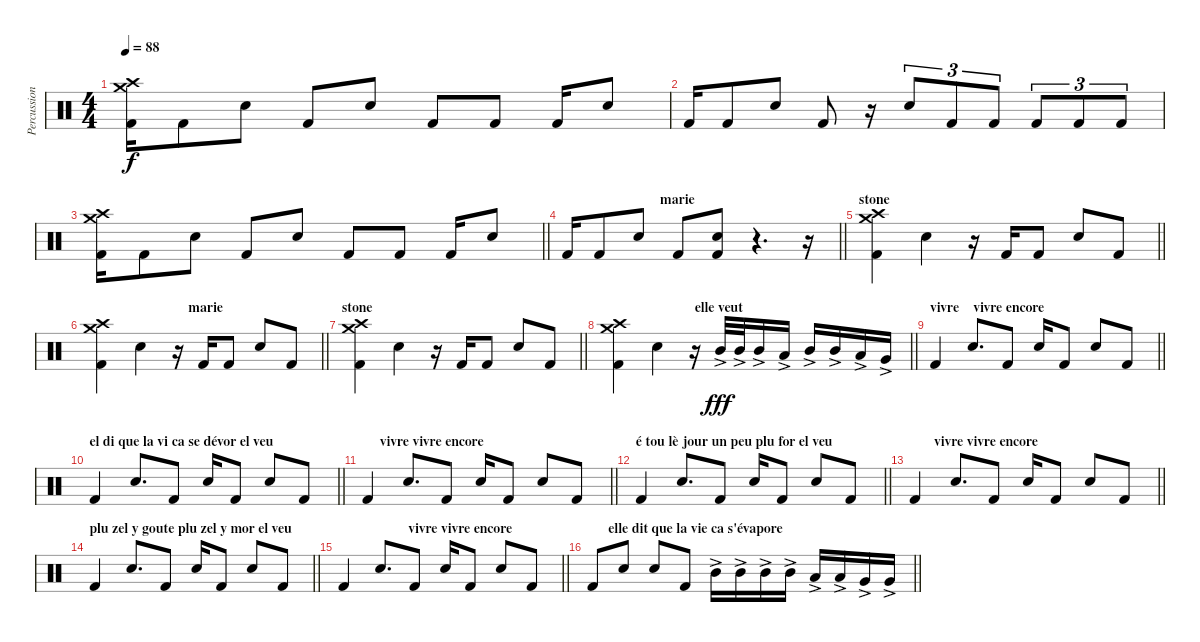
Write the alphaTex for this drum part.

\track ("Percussions" "Percussion") {instrument percussion}
\staff {score}
\articulation defaults
\ts (4 4)
\tempo 88
\clef neutral
\ks c
("Crash medium (hit)" "Crash high (hit)" "Kick (hit) 2").16{dy f} "Kick (hit) 2".8 "Snare (hit) 2".8 "Kick (hit) 2".8 "Snare (hit) 2".8 "Kick (hit) 2".8 "Kick (hit) 2".8 "Kick (hit) 2".16 "Snare (hit) 2".8 |
"Kick (hit) 2".16 "Kick (hit) 2".8 "Snare (hit) 2".8 "Kick (hit) 2".8 r.16 "Snare (hit) 2".8{tu (3 2)} "Kick (hit) 2".8{tu (3 2)} "Kick (hit) 2".8{tu (3 2)} "Kick (hit) 2".8{tu (3 2)} "Kick (hit) 2".8{tu (3 2)} "Kick (hit) 2".8{tu (3 2)} |
\barLineRight lightlight
("Crash medium (hit)" "Crash high (hit)" "Kick (hit) 2").16 "Kick (hit) 2".8 "Snare (hit) 2".8 "Kick (hit) 2".8 "Snare (hit) 2".8 "Kick (hit) 2".8 "Kick (hit) 2".8 "Kick (hit) 2".16 "Snare (hit) 2".8 |
\section ("" "                            marie ")
\barLineRight lightlight "Kick (hit) 2".16 "Kick (hit) 2".8 "Snare (hit) 2".8 "Kick (hit) 2".8
("Snare (hit) 2" "Kick (hit) 2").8 r.4{d} r.16 |
\section ("" "stone")
\barLineRight lightlight
("Crash medium (hit)" "Crash high (hit)" "Kick (hit) 2").4 "Snare (hit) 2".4 r.16 "Kick (hit) 2".16 "Kick (hit) 2".8 "Snare (hit) 2".8 "Kick (hit) 2".8 |
\section ("" "                              marie")
\barLineRight lightlight
("Crash medium (hit)" "Crash high (hit)" "Kick (hit) 2").4 "Snare (hit) 2".4 r.16 "Kick (hit) 2".16 "Kick (hit) 2".8 "Snare (hit) 2".8 "Kick (hit) 2".8 |
\section ("" "stone")
\barLineRight lightlight
("Crash medium (hit)" "Crash high (hit)" "Kick (hit) 2").4 "Snare (hit) 2".4 r.16 "Kick (hit) 2".16 "Kick (hit) 2".8 "Snare (hit) 2".8 "Kick (hit) 2".8 |
\section ("" "                           elle veut")
\barLineRight lightlight
("Crash medium (hit)" "Crash high (hit)" "Kick (hit) 2").4 "Snare (hit) 2".4 r.16 "Mid Tom (hit)"{ac}.32{dy fff} "Mid Tom (hit)"{ac}.32 "Mid Tom (hit)"{ac}.16 "Low Tom (hit)"{ac}.16 "Mid Tom (hit)"{ac}.16 "Mid Tom (hit)"{ac}.16 "Low Tom (hit)"{ac}.16 "Very Low Tom (hit)"{ac}.16 |
\section ("" "vivre    vivre encore")
\barLineRight lightlight "Kick (hit) 2".4 "Snare (hit) 2".8{d} "Kick (hit) 2".8 "Snare (hit) 2".16 "Kick (hit) 2".8 "Snare (hit) 2".8 "Kick (hit) 2".8
|
\section ("" "el di que la vi ca se dévor el veu")
\barLineRight lightlight "Kick (hit) 2".4 "Snare (hit) 2".8{d} "Kick (hit) 2".8 "Snare (hit) 2".16 "Kick (hit) 2".8 "Snare (hit) 2".8 "Kick (hit) 2".8
|
\section ("" "     vivre vivre encore")
\barLineRight lightlight "Kick (hit) 2".4 "Snare (hit) 2".8{d} "Kick (hit) 2".8 "Snare (hit) 2".16 "Kick (hit) 2".8 "Snare (hit) 2".8 "Kick (hit) 2".8
|
\section ("" "é tou lè jour un peu plu for el veu")
\barLineRight lightlight "Kick (hit) 2".4 "Snare (hit) 2".8{d} "Kick (hit) 2".8 "Snare (hit) 2".16 "Kick (hit) 2".8 "Snare (hit) 2".8 "Kick (hit) 2".8
|
\section ("" "       vivre vivre encore")
\barLineRight lightlight "Kick (hit) 2".4 "Snare (hit) 2".8{d} "Kick (hit) 2".8 "Snare (hit) 2".16 "Kick (hit) 2".8 "Snare (hit) 2".8 "Kick (hit) 2".8
|
\section ("" "plu zel y goute plu zel y mor el veu")
\barLineRight lightlight "Kick (hit) 2".4 "Snare (hit) 2".8{d} "Kick (hit) 2".8 "Snare (hit) 2".16 "Kick (hit) 2".8 "Snare (hit) 2".8 "Kick (hit) 2".8
|
\section ("" "                    vivre vivre encore")
\barLineRight lightlight "Kick (hit) 2".4 "Snare (hit) 2".8{d} "Kick (hit) 2".8 "Snare (hit) 2".16 "Kick (hit) 2".8 "Snare (hit) 2".8 "Kick (hit) 2".8
|
\section ("" "      elle dit que la vie ca s'évapore")
\barLineRight lightlight "Kick (hit) 2".8 "Snare (hit) 2".8 "Snare (hit) 2".8 "Kick (hit) 2".8 "Mid Tom (hit)"{ac}.16 "Mid Tom (hit)"{ac}.16 "Mid Tom (hit)"{ac}.16 "Mid Tom (hit)"{ac}.16 "Low Tom (hit)"{ac}.16 "Low Tom (hit)"{ac}.16 "Very Low Tom (hit)"{ac}.16 "Very Low Tom (hit)"{ac}.16
